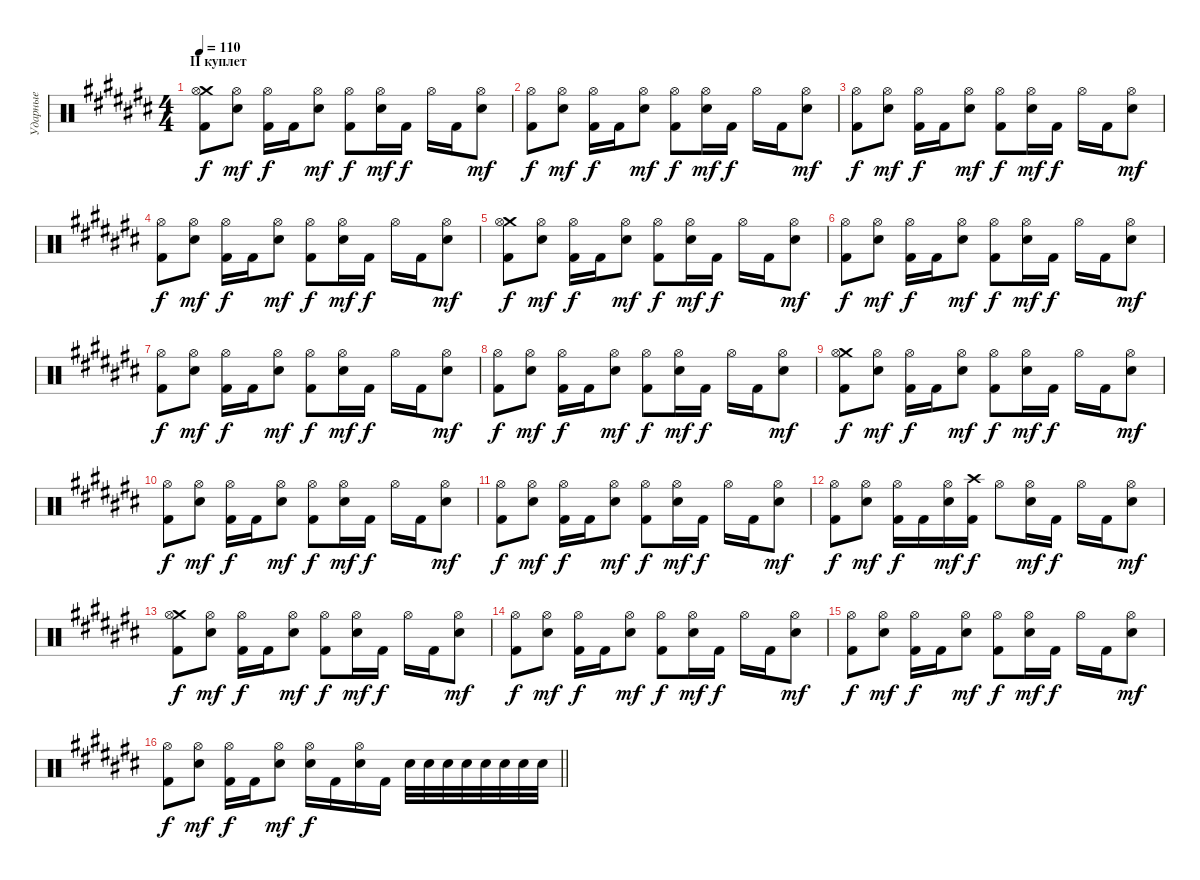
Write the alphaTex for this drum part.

\track ("Ударные" "Ударные") {instrument percussion}
\staff {score}
\articulation defaults
\ts (4 4)
\section ("" "II куплет")
\tempo 110
\clef neutral
\ks a#minor
("Crash medium (hit)" "Kick (hit) 2" "Hi-Hat (open)").8{dy f} ("Electric Snare (hit)" "Hi-Hat (open)").8{dy mf} ("Kick (hit) 2" "Hi-Hat (open)").16{dy f} "Kick (hit) 2".16 ("Electric Snare (hit)" "Hi-Hat (open)").8{dy mf} ("Kick (hit) 2" "Hi-Hat (open)").8{dy f} ("Electric Snare (hit)" "Hi-Hat (open)").16{dy mf} "Kick (hit) 2".16{dy f} "Hi-Hat (open)".16 "Kick (hit) 2".16 ("Electric Snare (hit)" "Hi-Hat (open)").8{dy mf} |
("Kick (hit) 2" "Hi-Hat (open)").8{dy f} ("Electric Snare (hit)" "Hi-Hat (open)").8{dy mf} ("Kick (hit) 2" "Hi-Hat (open)").16{dy f} "Kick (hit) 2".16 ("Electric Snare (hit)" "Hi-Hat (open)").8{dy mf} ("Kick (hit) 2" "Hi-Hat (open)").8{dy f} ("Electric Snare (hit)" "Hi-Hat (open)").16{dy mf} "Kick (hit) 2".16{dy f} "Hi-Hat (open)".16 "Kick (hit) 2".16 ("Electric Snare (hit)" "Hi-Hat (open)").8{dy mf} |
("Kick (hit) 2" "Hi-Hat (open)").8{dy f} ("Electric Snare (hit)" "Hi-Hat (open)").8{dy mf} ("Kick (hit) 2" "Hi-Hat (open)").16{dy f} "Kick (hit) 2".16 ("Electric Snare (hit)" "Hi-Hat (open)").8{dy mf} ("Kick (hit) 2" "Hi-Hat (open)").8{dy f} ("Electric Snare (hit)" "Hi-Hat (open)").16{dy mf} "Kick (hit) 2".16{dy f} "Hi-Hat (open)".16 "Kick (hit) 2".16 ("Electric Snare (hit)" "Hi-Hat (open)").8{dy mf} |
("Kick (hit) 2" "Hi-Hat (open)").8{dy f} ("Electric Snare (hit)" "Hi-Hat (open)").8{dy mf} ("Kick (hit) 2" "Hi-Hat (open)").16{dy f} "Kick (hit) 2".16 ("Electric Snare (hit)" "Hi-Hat (open)").8{dy mf} ("Kick (hit) 2" "Hi-Hat (open)").8{dy f} ("Electric Snare (hit)" "Hi-Hat (open)").16{dy mf} "Kick (hit) 2".16{dy f} "Hi-Hat (open)".16 "Kick (hit) 2".16 ("Electric Snare (hit)" "Hi-Hat (open)").8{dy mf} |
("Crash medium (hit)" "Kick (hit) 2" "Hi-Hat (open)").8{dy f} ("Electric Snare (hit)" "Hi-Hat (open)").8{dy mf} ("Kick (hit) 2" "Hi-Hat (open)").16{dy f} "Kick (hit) 2".16 ("Electric Snare (hit)" "Hi-Hat (open)").8{dy mf} ("Kick (hit) 2" "Hi-Hat (open)").8{dy f} ("Electric Snare (hit)" "Hi-Hat (open)").16{dy mf} "Kick (hit) 2".16{dy f} "Hi-Hat (open)".16 "Kick (hit) 2".16 ("Electric Snare (hit)" "Hi-Hat (open)").8{dy mf} |
("Kick (hit) 2" "Hi-Hat (open)").8{dy f} ("Electric Snare (hit)" "Hi-Hat (open)").8{dy mf} ("Kick (hit) 2" "Hi-Hat (open)").16{dy f} "Kick (hit) 2".16 ("Electric Snare (hit)" "Hi-Hat (open)").8{dy mf} ("Kick (hit) 2" "Hi-Hat (open)").8{dy f} ("Electric Snare (hit)" "Hi-Hat (open)").16{dy mf} "Kick (hit) 2".16{dy f} "Hi-Hat (open)".16 "Kick (hit) 2".16 ("Electric Snare (hit)" "Hi-Hat (open)").8{dy mf} |
("Kick (hit) 2" "Hi-Hat (open)").8{dy f} ("Electric Snare (hit)" "Hi-Hat (open)").8{dy mf} ("Kick (hit) 2" "Hi-Hat (open)").16{dy f} "Kick (hit) 2".16 ("Electric Snare (hit)" "Hi-Hat (open)").8{dy mf} ("Kick (hit) 2" "Hi-Hat (open)").8{dy f} ("Electric Snare (hit)" "Hi-Hat (open)").16{dy mf} "Kick (hit) 2".16{dy f} "Hi-Hat (open)".16 "Kick (hit) 2".16 ("Electric Snare (hit)" "Hi-Hat (open)").8{dy mf} |
("Kick (hit) 2" "Hi-Hat (open)").8{dy f} ("Electric Snare (hit)" "Hi-Hat (open)").8{dy mf} ("Kick (hit) 2" "Hi-Hat (open)").16{dy f} "Kick (hit) 2".16 ("Electric Snare (hit)" "Hi-Hat (open)").8{dy mf} ("Kick (hit) 2" "Hi-Hat (open)").8{dy f} ("Electric Snare (hit)" "Hi-Hat (open)").16{dy mf} "Kick (hit) 2".16{dy f} "Hi-Hat (open)".16 "Kick (hit) 2".16 ("Electric Snare (hit)" "Hi-Hat (open)").8{dy mf} |
("Crash medium (hit)" "Kick (hit) 2" "Hi-Hat (open)").8{dy f} ("Electric Snare (hit)" "Hi-Hat (open)").8{dy mf} ("Kick (hit) 2" "Hi-Hat (open)").16{dy f} "Kick (hit) 2".16 ("Electric Snare (hit)" "Hi-Hat (open)").8{dy mf} ("Kick (hit) 2" "Hi-Hat (open)").8{dy f} ("Electric Snare (hit)" "Hi-Hat (open)").16{dy mf} "Kick (hit) 2".16{dy f} "Hi-Hat (open)".16 "Kick (hit) 2".16 ("Electric Snare (hit)" "Hi-Hat (open)").8{dy mf} |
("Kick (hit) 2" "Hi-Hat (open)").8{dy f} ("Electric Snare (hit)" "Hi-Hat (open)").8{dy mf} ("Kick (hit) 2" "Hi-Hat (open)").16{dy f} "Kick (hit) 2".16 ("Electric Snare (hit)" "Hi-Hat (open)").8{dy mf} ("Kick (hit) 2" "Hi-Hat (open)").8{dy f} ("Electric Snare (hit)" "Hi-Hat (open)").16{dy mf} "Kick (hit) 2".16{dy f} "Hi-Hat (open)".16 "Kick (hit) 2".16 ("Electric Snare (hit)" "Hi-Hat (open)").8{dy mf} |
("Kick (hit) 2" "Hi-Hat (open)").8{dy f} ("Electric Snare (hit)" "Hi-Hat (open)").8{dy mf} ("Kick (hit) 2" "Hi-Hat (open)").16{dy f} "Kick (hit) 2".16 ("Electric Snare (hit)" "Hi-Hat (open)").8{dy mf} ("Kick (hit) 2" "Hi-Hat (open)").8{dy f} ("Electric Snare (hit)" "Hi-Hat (open)").16{dy mf} "Kick (hit) 2".16{dy f} "Hi-Hat (open)".16 "Kick (hit) 2".16 ("Electric Snare (hit)" "Hi-Hat (open)").8{dy mf} |
("Kick (hit) 2" "Hi-Hat (open)").8{dy f} ("Electric Snare (hit)" "Hi-Hat (open)").8{dy mf} ("Kick (hit) 2" "Hi-Hat (open)").16{dy f} "Kick (hit) 2".16 ("Electric Snare (hit)" "Hi-Hat (open)").16{dy mf} ("Crash high (hit)" "Kick (hit) 2").16{dy f} "Hi-Hat (open)".8 ("Electric Snare (hit)" "Hi-Hat (open)").16{dy mf} "Kick (hit) 2".16{dy f} "Hi-Hat (open)".16 "Kick (hit) 2".16 ("Electric Snare (hit)" "Hi-Hat (open)").8{dy mf} |
("Crash medium (hit)" "Kick (hit) 2" "Hi-Hat (open)").8{dy f} ("Electric Snare (hit)" "Hi-Hat (open)").8{dy mf} ("Kick (hit) 2" "Hi-Hat (open)").16{dy f} "Kick (hit) 2".16 ("Electric Snare (hit)" "Hi-Hat (open)").8{dy mf} ("Kick (hit) 2" "Hi-Hat (open)").8{dy f} ("Electric Snare (hit)" "Hi-Hat (open)").16{dy mf} "Kick (hit) 2".16{dy f} "Hi-Hat (open)".16 "Kick (hit) 2".16 ("Electric Snare (hit)" "Hi-Hat (open)").8{dy mf} |
("Kick (hit) 2" "Hi-Hat (open)").8{dy f} ("Electric Snare (hit)" "Hi-Hat (open)").8{dy mf} ("Kick (hit) 2" "Hi-Hat (open)").16{dy f} "Kick (hit) 2".16 ("Electric Snare (hit)" "Hi-Hat (open)").8{dy mf} ("Kick (hit) 2" "Hi-Hat (open)").8{dy f} ("Electric Snare (hit)" "Hi-Hat (open)").16{dy mf} "Kick (hit) 2".16{dy f} "Hi-Hat (open)".16 "Kick (hit) 2".16 ("Electric Snare (hit)" "Hi-Hat (open)").8{dy mf} |
("Kick (hit) 2" "Hi-Hat (open)").8{dy f} ("Electric Snare (hit)" "Hi-Hat (open)").8{dy mf} ("Kick (hit) 2" "Hi-Hat (open)").16{dy f} "Kick (hit) 2".16 ("Electric Snare (hit)" "Hi-Hat (open)").8{dy mf} ("Kick (hit) 2" "Hi-Hat (open)").8{dy f} ("Electric Snare (hit)" "Hi-Hat (open)").16{dy mf} "Kick (hit) 2".16{dy f} "Hi-Hat (open)".16 "Kick (hit) 2".16 ("Electric Snare (hit)" "Hi-Hat (open)").8{dy mf} |
\barLineRight lightlight
("Kick (hit) 2" "Hi-Hat (open)").8{dy f} ("Electric Snare (hit)" "Hi-Hat (open)").8{dy mf} ("Kick (hit) 2" "Hi-Hat (open)").16{dy f} "Kick (hit) 2".16 ("Electric Snare (hit)" "Hi-Hat (open)").8{dy mf} ("Electric Snare (hit)" "Hi-Hat (open)").16{dy f} "Kick (hit) 2".16 ("Electric Snare (hit)" "Hi-Hat (open)").16 "Kick (hit) 2".16 "Electric Snare (hit)".32 "Electric Snare (hit)".32 "Electric Snare (hit)".32 "Electric Snare (hit)".32 "Electric Snare (hit)".32 "Electric Snare (hit)".32 "Electric Snare (hit)".32 "Electric Snare (hit)".32
